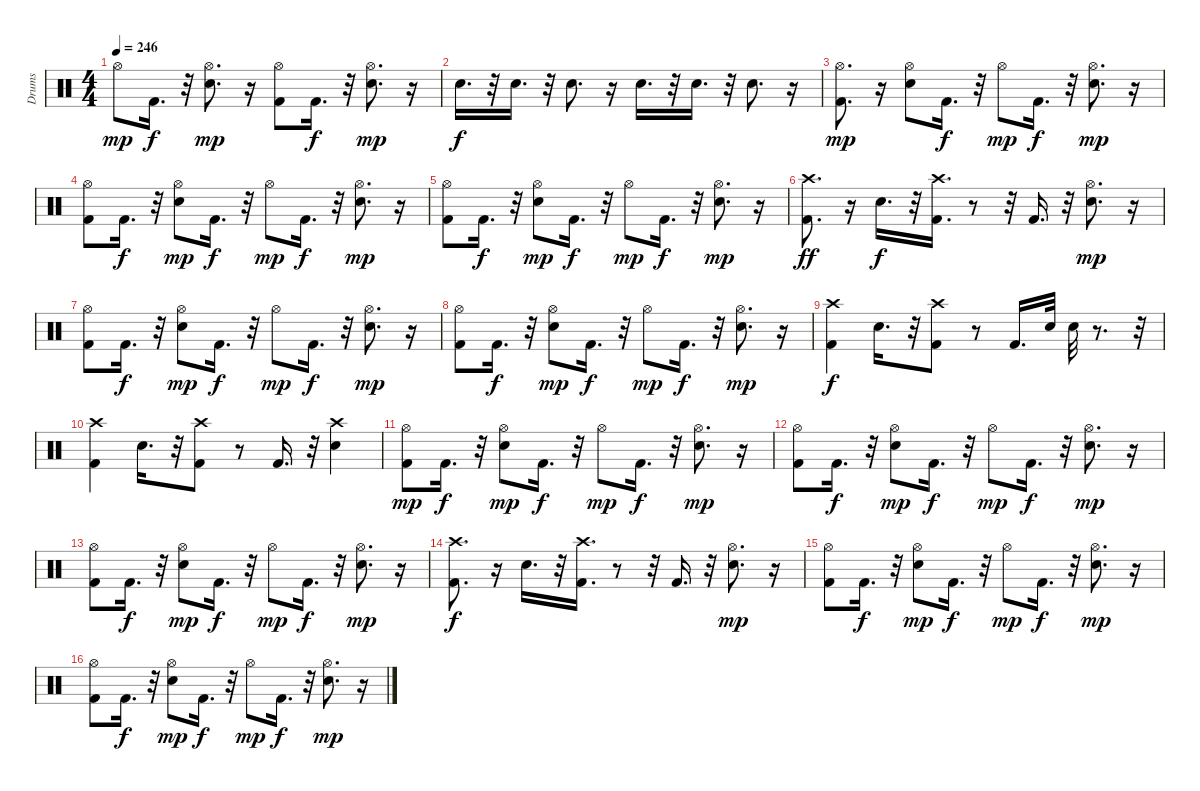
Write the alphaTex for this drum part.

\track ("Drums" "Drums") {instrument percussion}
\staff {score}
\articulation defaults
\ts (4 4)
\tempo 246
\clef neutral
\ks c "Hi-Hat (open)".8{dy mp} "Kick (hit) 2".16{d dy f}
r.32 ("Hi-Hat (open)" "Electric Snare (hit)").8{d dy mp} r.16 ("Kick (hit) 2" "Hi-Hat (open)").8 "Kick (hit) 2".16{d dy f} r.32 ("Hi-Hat (open)" "Electric Snare (hit)").8{d dy mp} r.16 |
"Electric Snare (hit)".16{d dy f} r.32 "Electric Snare (hit)".16{d} r.32 "Electric Snare (hit)".8{d} r.16 "Electric Snare (hit)".16{d} r.32 "Electric Snare (hit)".16{d} r.32 "Electric Snare (hit)".8{d} r.16 |
("Kick (hit) 2" "Hi-Hat (open)").8{d dy mp} r.16 ("Electric Snare (hit)" "Hi-Hat (open)").8 "Kick (hit) 2".16{d dy f} r.32 "Hi-Hat (open)".8{dy mp} "Kick (hit) 2".16{d dy f} r.32 ("Electric Snare (hit)" "Hi-Hat (open)").8{d dy mp} r.16 |
("Kick (hit) 2" "Hi-Hat (open)").8 "Kick (hit) 2".16{d dy f} r.32 ("Electric Snare (hit)" "Hi-Hat (open)").8{dy mp} "Kick (hit) 2".16{d dy f} r.32 "Hi-Hat (open)".8{dy mp} "Kick (hit) 2".16{d dy f} r.32 ("Electric Snare (hit)" "Hi-Hat (open)").8{d dy mp} r.16 |
("Kick (hit) 2" "Hi-Hat (open)").8 "Kick (hit) 2".16{d dy f} r.32 ("Electric Snare (hit)" "Hi-Hat (open)").8{dy mp} "Kick (hit) 2".16{d dy f} r.32 "Hi-Hat (open)".8{dy mp} "Kick (hit) 2".16{d dy f} r.32 ("Electric Snare (hit)" "Hi-Hat (open)").8{d dy mp} r.16 |
("Kick (hit) 2" "Crash high (hit)").8{d dy ff} r.16 "Electric Snare (hit)".16{d dy f} r.32 ("Kick (hit) 2" "Crash high (hit)").16{d} r.8 r.32 "Kick (hit) 2".16{d} r.32 ("Electric Snare (hit)" "Hi-Hat (open)").8{d dy mp} r.16 |
("Kick (hit) 2" "Hi-Hat (open)").8 "Kick (hit) 2".16{d dy f} r.32 ("Electric Snare (hit)" "Hi-Hat (open)").8{dy mp} "Kick (hit) 2".16{d dy f} r.32 "Hi-Hat (open)".8{dy mp} "Kick (hit) 2".16{d dy f} r.32 ("Electric Snare (hit)" "Hi-Hat (open)").8{d dy mp} r.16 |
("Kick (hit) 2" "Hi-Hat (open)").8 "Kick (hit) 2".16{d dy f} r.32 ("Electric Snare (hit)" "Hi-Hat (open)").8{dy mp} "Kick (hit) 2".16{d dy f} r.32 "Hi-Hat (open)".8{dy mp} "Kick (hit) 2".16{d dy f} r.32 ("Electric Snare (hit)" "Hi-Hat (open)").8{d dy mp} r.16 |
("Kick (hit) 2" "Crash high (hit)").4{dy f} "Electric Snare (hit)".16{d} r.32 ("Kick (hit) 2" "Crash high (hit)").8 r.8 "Kick (hit) 2".16{d} "Electric Snare (hit)".32 "Electric Snare (hit)".32 r.8{d} r.32 |
("Kick (hit) 2" "Crash high (hit)").4 "Electric Snare (hit)".16{d} r.32 ("Kick (hit) 2" "Crash high (hit)").8 r.8 "Kick (hit) 2".16{d} r.32 ("Electric Snare (hit)" "Crash high (hit)").4 |
("Kick (hit) 2" "Hi-Hat (open)").8{dy mp} "Kick (hit) 2".16{d dy f} r.32 ("Electric Snare (hit)" "Hi-Hat (open)").8{dy mp} "Kick (hit) 2".16{d dy f} r.32 "Hi-Hat (open)".8{dy mp} "Kick (hit) 2".16{d dy f} r.32 ("Electric Snare (hit)" "Hi-Hat (open)").8{d dy mp} r.16 |
("Kick (hit) 2" "Hi-Hat (open)").8 "Kick (hit) 2".16{d dy f} r.32 ("Electric Snare (hit)" "Hi-Hat (open)").8{dy mp} "Kick (hit) 2".16{d dy f} r.32 "Hi-Hat (open)".8{dy mp} "Kick (hit) 2".16{d dy f} r.32 ("Electric Snare (hit)" "Hi-Hat (open)").8{d dy mp} r.16 |
("Kick (hit) 2" "Hi-Hat (open)").8 "Kick (hit) 2".16{d dy f} r.32 ("Electric Snare (hit)" "Hi-Hat (open)").8{dy mp} "Kick (hit) 2".16{d dy f} r.32 "Hi-Hat (open)".8{dy mp} "Kick (hit) 2".16{d dy f} r.32 ("Electric Snare (hit)" "Hi-Hat (open)").8{d dy mp} r.16 |
("Kick (hit) 2" "Crash high (hit)").8{d dy f} r.16 "Electric Snare (hit)".16{d} r.32 ("Kick (hit) 2" "Crash high (hit)").16{d} r.8 r.32 "Kick (hit) 2".16{d} r.32 ("Electric Snare (hit)" "Hi-Hat (open)").8{d dy mp} r.16 |
("Kick (hit) 2" "Hi-Hat (open)").8 "Kick (hit) 2".16{d dy f} r.32 ("Electric Snare (hit)" "Hi-Hat (open)").8{dy mp} "Kick (hit) 2".16{d dy f} r.32 "Hi-Hat (open)".8{dy mp} "Kick (hit) 2".16{d dy f} r.32 ("Electric Snare (hit)" "Hi-Hat (open)").8{d dy mp} r.16 |
("Kick (hit) 2" "Hi-Hat (open)").8 "Kick (hit) 2".16{d dy f} r.32 ("Electric Snare (hit)" "Hi-Hat (open)").8{dy mp} "Kick (hit) 2".16{d dy f} r.32 "Hi-Hat (open)".8{dy mp} "Kick (hit) 2".16{d dy f} r.32 ("Electric Snare (hit)" "Hi-Hat (open)").8{d dy mp} r.16
